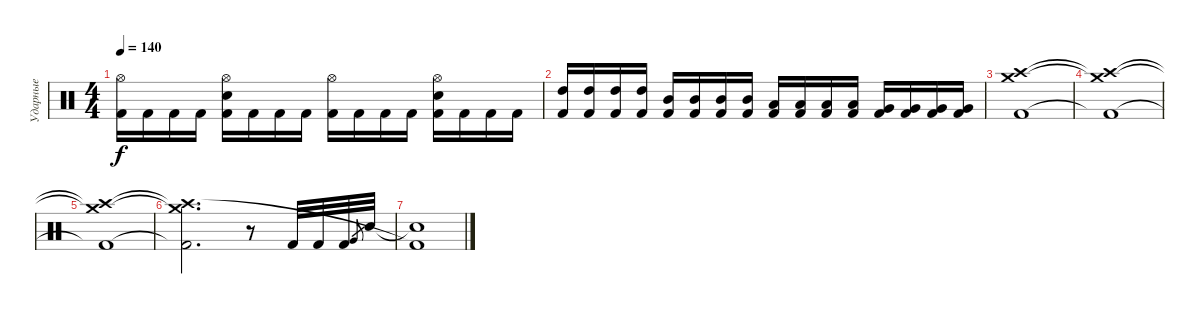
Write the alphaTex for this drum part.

\track ("Ударные" "Ударные") {instrument percussion}
\staff {score}
\articulation defaults
\ts (4 4)
\tempo 140
\clef neutral
\ks c
("Hi-Hat (open)" "Kick (hit) 2").16{dy f} "Kick (hit) 2".16 "Kick (hit) 2".16 "Kick (hit) 2".16 ("Hi-Hat (open)" "Electric Snare (hit)" "Kick (hit) 2").16 "Kick (hit) 2".16 "Kick (hit) 2".16 "Kick (hit) 2".16 ("Hi-Hat (open)" "Kick (hit) 2").16 "Kick (hit) 2".16 "Kick (hit) 2".16 "Kick (hit) 2".16 ("Hi-Hat (open)" "Electric Snare (hit)" "Kick (hit) 2").16 "Kick (hit) 2".16 "Kick (hit) 2".16 "Kick (hit) 2".16 |
("High Tom (hit)" "Kick (hit) 2").16 ("High Tom (hit)" "Kick (hit) 2").16 ("High Tom (hit)" "Kick (hit) 2").16 ("High Tom (hit)" "Kick (hit) 2").16 ("Mid Tom (hit)" "Kick (hit) 2").16 ("Mid Tom (hit)" "Kick (hit) 2").16 ("Mid Tom (hit)" "Kick (hit) 2").16 ("Mid Tom (hit)" "Kick (hit) 2").16 ("Low Tom (hit)" "Kick (hit) 2").16 ("Low Tom (hit)" "Kick (hit) 2").16 ("Low Tom (hit)" "Kick (hit) 2").16 ("Low Tom (hit)" "Kick (hit) 2").16 ("Very Low Tom (hit)" "Kick (hit) 2").16 ("Very Low Tom (hit)" "Kick (hit) 2").16 ("Very Low Tom (hit)" "Kick (hit) 2").16 ("Very Low Tom (hit)" "Kick (hit) 2").16 |
("Crash medium (hit)" "Crash high (hit)" "Kick (hit) 2").1 |
("Crash medium (hit)"{t} "Crash high (hit)"{t} "Kick (hit) 2"{t}).1 |
("Crash medium (hit)"{t} "Crash high (hit)"{t} "Kick (hit) 2"{t}).1 |
("Crash medium (hit)"{t} "Crash high (hit)"{t} "Kick (hit) 2"{t}).2{d} r.8 "Kick (hit) 2".32 "Kick (hit) 2".32 "Kick (hit) 2".32 "Very Low Tom (hit)".8{gr} "Electric Snare (hit)".32 |
("Electric Snare (hit)"{t} "Kick (hit) 2"{t}).1
